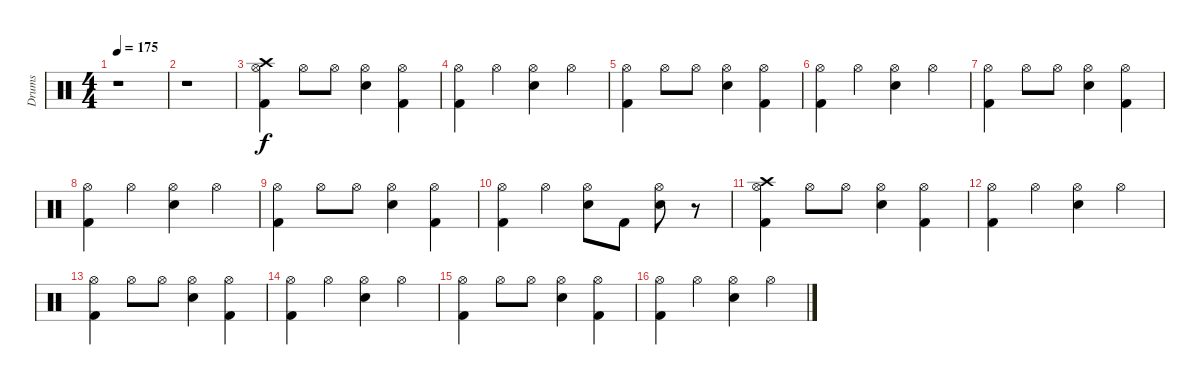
\track ("Drums" "Drums") {instrument percussion}
\staff {score}
\articulation defaults
\ts (4 4)
\tempo 175
\clef neutral
\ks c
r.1{dy f} |
r.1 |
("Hi-Hat (open)" "Crash high (hit)" "Kick (hit) 2").4 "Hi-Hat (open)".8 "Hi-Hat (open)".8 ("Hi-Hat (open)" "Snare (hit) 2").4 ("Hi-Hat (open)" "Kick (hit) 2").4 |
("Hi-Hat (open)" "Kick (hit) 2").4 "Hi-Hat (open)".4 ("Hi-Hat (open)" "Snare (hit) 2").4 "Hi-Hat (open)".4 |
("Hi-Hat (open)" "Kick (hit) 2").4 "Hi-Hat (open)".8 "Hi-Hat (open)".8 ("Hi-Hat (open)" "Snare (hit) 2").4 ("Hi-Hat (open)" "Kick (hit) 2").4 |
("Hi-Hat (open)" "Kick (hit) 2").4 "Hi-Hat (open)".4 ("Hi-Hat (open)" "Snare (hit) 2").4 "Hi-Hat (open)".4 |
("Hi-Hat (open)" "Kick (hit) 2").4 "Hi-Hat (open)".8 "Hi-Hat (open)".8 ("Hi-Hat (open)" "Snare (hit) 2").4 ("Hi-Hat (open)" "Kick (hit) 2").4 |
("Hi-Hat (open)" "Kick (hit) 2").4 "Hi-Hat (open)".4 ("Hi-Hat (open)" "Snare (hit) 2").4 "Hi-Hat (open)".4 |
("Hi-Hat (open)" "Kick (hit) 2").4 "Hi-Hat (open)".8 "Hi-Hat (open)".8 ("Hi-Hat (open)" "Snare (hit) 2").4 ("Hi-Hat (open)" "Kick (hit) 2").4 |
("Hi-Hat (open)" "Kick (hit) 2").4 "Hi-Hat (open)".4 ("Hi-Hat (open)" "Snare (hit) 2").8 "Kick (hit) 2".8 ("Hi-Hat (open)"{pm} "Snare (hit) 2"{pm}).8 r.8 |
("Hi-Hat (open)" "Crash high (hit)" "Kick (hit) 2").4 "Hi-Hat (open)".8 "Hi-Hat (open)".8 ("Hi-Hat (open)" "Snare (hit) 2").4 ("Hi-Hat (open)" "Kick (hit) 2").4 |
("Hi-Hat (open)" "Kick (hit) 2").4 "Hi-Hat (open)".4 ("Hi-Hat (open)" "Snare (hit) 2").4 "Hi-Hat (open)".4 |
("Hi-Hat (open)" "Kick (hit) 2").4 "Hi-Hat (open)".8 "Hi-Hat (open)".8 ("Hi-Hat (open)" "Snare (hit) 2").4 ("Hi-Hat (open)" "Kick (hit) 2").4 |
("Hi-Hat (open)" "Kick (hit) 2").4 "Hi-Hat (open)".4 ("Hi-Hat (open)" "Snare (hit) 2").4 "Hi-Hat (open)".4 |
("Hi-Hat (open)" "Kick (hit) 2").4 "Hi-Hat (open)".8 "Hi-Hat (open)".8 ("Hi-Hat (open)" "Snare (hit) 2").4 ("Hi-Hat (open)" "Kick (hit) 2").4 |
("Hi-Hat (open)" "Kick (hit) 2").4 "Hi-Hat (open)".4 ("Hi-Hat (open)" "Snare (hit) 2").4 "Hi-Hat (open)".4
